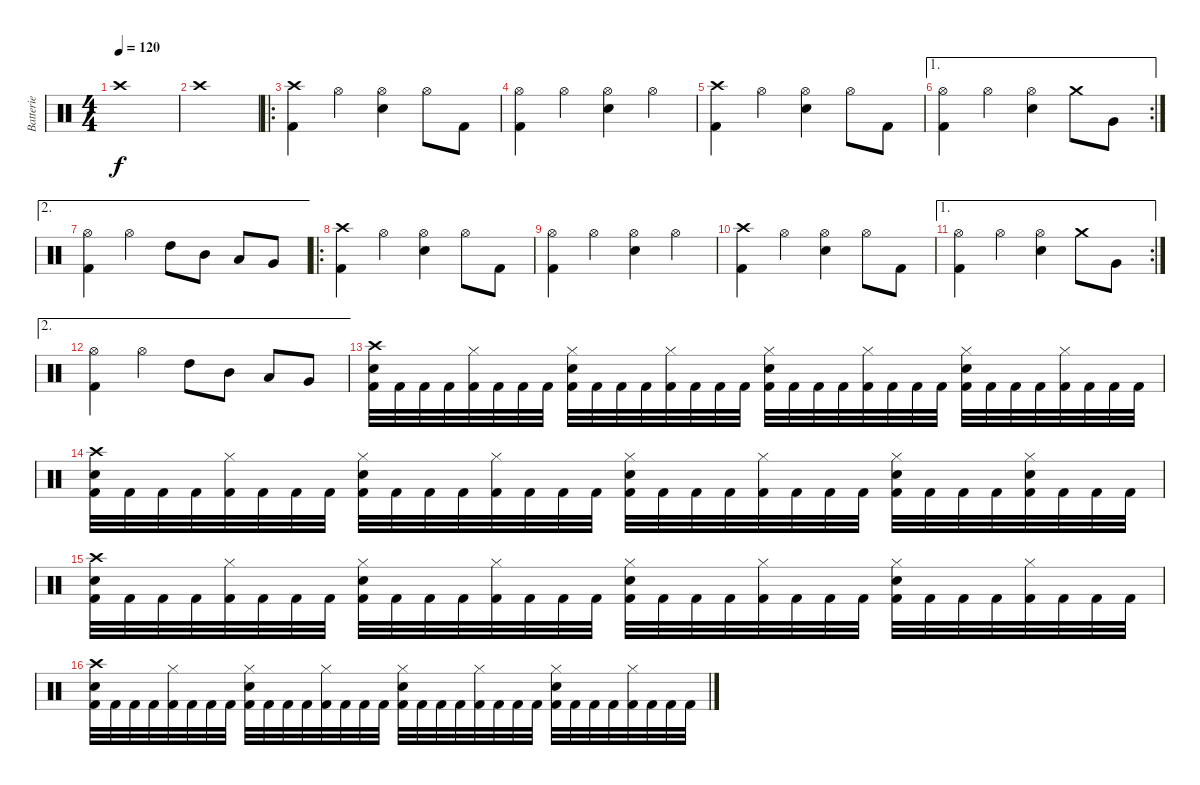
\track ("Batterie" "Batterie") {instrument percussion}
\staff {score}
\articulation defaults
\ts (4 4)
\tempo 120
\clef neutral
\ks c "Crash high (hit)".1{dy f}
|
"Crash high (hit)".1 |
\ro
("Crash high (hit)" "Kick (hit) 2").4 "Hi-Hat (open)".4 ("Hi-Hat (open)" "Electric Snare (hit)").4 "Hi-Hat (open)".8 "Kick (hit) 2".8 |
("Hi-Hat (open)" "Kick (hit) 2").4 "Hi-Hat (open)".4 ("Hi-Hat (open)" "Electric Snare (hit)").4 "Hi-Hat (open)".4 |
("Crash high (hit)" "Kick (hit) 2").4 "Hi-Hat (open)".4 ("Hi-Hat (open)" "Electric Snare (hit)").4 "Hi-Hat (open)".8 "Kick (hit) 2".8 |
\ae 1
\rc 2
("Hi-Hat (open)" "Kick (hit) 2").4 "Hi-Hat (open)".4 ("Hi-Hat (open)" "Electric Snare (hit)").4 "Crash medium (hit)".8 "Very Low Tom (hit)".8 |
\ae 2
("Hi-Hat (open)" "Kick (hit) 2").4 "Hi-Hat (open)".4 "High Tom (hit)".8 "Mid Tom (hit)".8 "Low Tom (hit)".8 "Very Low Tom (hit)".8 |
\ro
("Crash high (hit)" "Kick (hit) 2").4 "Hi-Hat (open)".4 ("Hi-Hat (open)" "Electric Snare (hit)").4 "Hi-Hat (open)".8 "Kick (hit) 2".8 |
("Hi-Hat (open)" "Kick (hit) 2").4 "Hi-Hat (open)".4 ("Hi-Hat (open)" "Electric Snare (hit)").4 "Hi-Hat (open)".4 |
("Crash high (hit)" "Kick (hit) 2").4 "Hi-Hat (open)".4 ("Hi-Hat (open)" "Electric Snare (hit)").4 "Hi-Hat (open)".8 "Kick (hit) 2".8 |
\ae 1
\rc 2
("Hi-Hat (open)" "Kick (hit) 2").4 "Hi-Hat (open)".4 ("Hi-Hat (open)" "Electric Snare (hit)").4 "Crash medium (hit)".8 "Very Low Tom (hit)".8 |
\ae 2
("Hi-Hat (open)" "Kick (hit) 2").4 "Hi-Hat (open)".4 "High Tom (hit)".8 "Mid Tom (hit)".8 "Low Tom (hit)".8 "Very Low Tom (hit)".8 |
("Crash high (hit)" "Electric Snare (hit)" "Kick (hit) 2").32 "Kick (hit) 2".32 "Kick (hit) 2".32 "Kick (hit) 2".32 ("Hi-Hat (closed)" "Kick (hit) 2").32 "Kick (hit) 2".32 "Kick (hit) 2".32 "Kick (hit) 2".32 ("Hi-Hat (closed)" "Electric Snare (hit)" "Kick (hit) 2").32 "Kick (hit) 2".32 "Kick (hit) 2".32 "Kick (hit) 2".32 ("Hi-Hat (closed)" "Kick (hit) 2").32 "Kick (hit) 2".32 "Kick (hit) 2".32 "Kick (hit) 2".32 ("Hi-Hat (closed)" "Electric Snare (hit)" "Kick (hit) 2").32 "Kick (hit) 2".32 "Kick (hit) 2".32 "Kick (hit) 2".32 ("Hi-Hat (closed)" "Kick (hit) 2").32 "Kick (hit) 2".32 "Kick (hit) 2".32 "Kick (hit) 2".32 ("Hi-Hat (closed)" "Electric Snare (hit)" "Kick (hit) 2").32 "Kick (hit) 2".32 "Kick (hit) 2".32 "Kick (hit) 2".32 ("Hi-Hat (closed)" "Kick (hit) 2").32 "Kick (hit) 2".32 "Kick (hit) 2".32 "Kick (hit) 2".32 |
("Crash high (hit)" "Electric Snare (hit)" "Kick (hit) 2").32 "Kick (hit) 2".32 "Kick (hit) 2".32 "Kick (hit) 2".32 ("Hi-Hat (closed)" "Kick (hit) 2").32 "Kick (hit) 2".32 "Kick (hit) 2".32 "Kick (hit) 2".32 ("Hi-Hat (closed)" "Electric Snare (hit)" "Kick (hit) 2").32 "Kick (hit) 2".32 "Kick (hit) 2".32 "Kick (hit) 2".32 ("Hi-Hat (closed)" "Kick (hit) 2").32 "Kick (hit) 2".32 "Kick (hit) 2".32 "Kick (hit) 2".32 ("Hi-Hat (closed)" "Electric Snare (hit)" "Kick (hit) 2").32 "Kick (hit) 2".32 "Kick (hit) 2".32 "Kick (hit) 2".32 ("Hi-Hat (closed)" "Kick (hit) 2").32 "Kick (hit) 2".32 "Kick (hit) 2".32 "Kick (hit) 2".32 ("Hi-Hat (closed)" "Electric Snare (hit)" "Kick (hit) 2").32 "Kick (hit) 2".32 "Kick (hit) 2".32 "Kick (hit) 2".32 ("Hi-Hat (closed)" "Electric Snare (hit)" "Kick (hit) 2").32 "Kick (hit) 2".32 "Kick (hit) 2".32 "Kick (hit) 2".32 |
("Crash high (hit)" "Electric Snare (hit)" "Kick (hit) 2").32 "Kick (hit) 2".32 "Kick (hit) 2".32 "Kick (hit) 2".32 ("Hi-Hat (closed)" "Kick (hit) 2").32 "Kick (hit) 2".32 "Kick (hit) 2".32 "Kick (hit) 2".32 ("Hi-Hat (closed)" "Electric Snare (hit)" "Kick (hit) 2").32 "Kick (hit) 2".32 "Kick (hit) 2".32 "Kick (hit) 2".32 ("Hi-Hat (closed)" "Kick (hit) 2").32 "Kick (hit) 2".32 "Kick (hit) 2".32 "Kick (hit) 2".32 ("Hi-Hat (closed)" "Electric Snare (hit)" "Kick (hit) 2").32 "Kick (hit) 2".32 "Kick (hit) 2".32 "Kick (hit) 2".32 ("Hi-Hat (closed)" "Kick (hit) 2").32 "Kick (hit) 2".32 "Kick (hit) 2".32 "Kick (hit) 2".32 ("Hi-Hat (closed)" "Electric Snare (hit)" "Kick (hit) 2").32 "Kick (hit) 2".32 "Kick (hit) 2".32 "Kick (hit) 2".32 ("Hi-Hat (closed)" "Kick (hit) 2").32 "Kick (hit) 2".32 "Kick (hit) 2".32 "Kick (hit) 2".32 |
("Crash high (hit)" "Electric Snare (hit)" "Kick (hit) 2").32 "Kick (hit) 2".32 "Kick (hit) 2".32 "Kick (hit) 2".32 ("Hi-Hat (closed)" "Kick (hit) 2").32 "Kick (hit) 2".32 "Kick (hit) 2".32 "Kick (hit) 2".32 ("Hi-Hat (closed)" "Electric Snare (hit)" "Kick (hit) 2").32 "Kick (hit) 2".32 "Kick (hit) 2".32 "Kick (hit) 2".32 ("Hi-Hat (closed)" "Kick (hit) 2").32 "Kick (hit) 2".32 "Kick (hit) 2".32 "Kick (hit) 2".32 ("Hi-Hat (closed)" "Electric Snare (hit)" "Kick (hit) 2").32 "Kick (hit) 2".32 "Kick (hit) 2".32 "Kick (hit) 2".32 ("Hi-Hat (closed)" "Kick (hit) 2").32 "Kick (hit) 2".32 "Kick (hit) 2".32 "Kick (hit) 2".32 ("Hi-Hat (closed)" "Electric Snare (hit)" "Kick (hit) 2").32 "Kick (hit) 2".32 "Kick (hit) 2".32 "Kick (hit) 2".32 ("Hi-Hat (closed)" "Kick (hit) 2").32 "Kick (hit) 2".32 "Kick (hit) 2".32 "Kick (hit) 2".32
